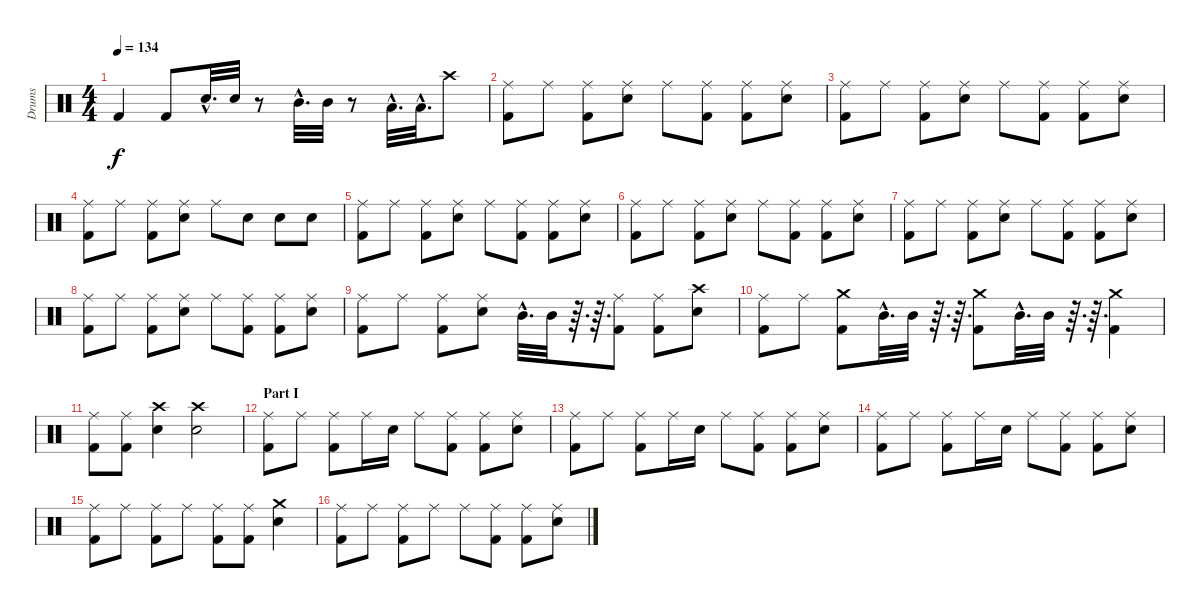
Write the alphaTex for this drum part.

\track ("Drums" "Drums") {instrument percussion}
\staff {score}
\articulation defaults
\ts (4 4)
\tempo 134
\clef neutral
\ks c "Kick (hit) 2".4{dy f} "Kick (hit) 2".8 "Snare (hit) 2"{hac}.32{d} "Snare (hit) 2".32
r.8 "Mid Tom (hit)"{hac}.32{d} "Mid Tom (hit)".32 r.8 "Low Tom (hit)"{hac}.32{d} "Low Tom (hit)"{hac}.32{d} "Crash high (hit)".8 |
("Ride (middle)" "Kick (hit) 2").8 "Ride (middle)".8 ("Ride (middle)" "Kick (hit) 2").8 ("Ride (middle)" "Snare (hit) 2").8 "Ride (middle)".8 ("Ride (middle)" "Kick (hit) 2").8 ("Ride (middle)" "Kick (hit) 2").8 ("Ride (middle)" "Snare (hit) 2").8 |
("Ride (middle)" "Kick (hit) 2").8 "Ride (middle)".8 ("Ride (middle)" "Kick (hit) 2").8 ("Ride (middle)" "Snare (hit) 2").8 "Ride (middle)".8 ("Ride (middle)" "Kick (hit) 2").8 ("Ride (middle)" "Kick (hit) 2").8 ("Ride (middle)" "Snare (hit) 2").8 |
("Ride (middle)" "Kick (hit) 2").8 "Ride (middle)".8 ("Ride (middle)" "Kick (hit) 2").8 ("Ride (middle)" "Snare (hit) 2").8 "Ride (middle)".8 "Snare (hit) 2".8 "Snare (hit) 2".8 "Snare (hit) 2".8 |
("Ride (middle)" "Kick (hit) 2").8 "Ride (middle)".8 ("Ride (middle)" "Kick (hit) 2").8 ("Ride (middle)" "Snare (hit) 2").8 "Ride (middle)".8 ("Ride (middle)" "Kick (hit) 2").8 ("Ride (middle)" "Kick (hit) 2").8 ("Ride (middle)" "Snare (hit) 2").8 |
("Ride (middle)" "Kick (hit) 2").8 "Ride (middle)".8 ("Ride (middle)" "Kick (hit) 2").8 ("Ride (middle)" "Snare (hit) 2").8 "Ride (middle)".8 ("Ride (middle)" "Kick (hit) 2").8 ("Ride (middle)" "Kick (hit) 2").8 ("Ride (middle)" "Snare (hit) 2").8 |
("Ride (middle)" "Kick (hit) 2").8 "Ride (middle)".8 ("Ride (middle)" "Kick (hit) 2").8 ("Ride (middle)" "Snare (hit) 2").8 "Ride (middle)".8 ("Ride (middle)" "Kick (hit) 2").8 ("Ride (middle)" "Kick (hit) 2").8 ("Ride (middle)" "Snare (hit) 2").8 |
("Ride (middle)" "Kick (hit) 2").8 "Ride (middle)".8 ("Ride (middle)" "Kick (hit) 2").8 ("Ride (middle)" "Snare (hit) 2").8 "Ride (middle)".8 ("Ride (middle)" "Kick (hit) 2").8 ("Ride (middle)" "Kick (hit) 2").8 ("Ride (middle)" "Snare (hit) 2").8 |
("Ride (middle)" "Kick (hit) 2").8 "Ride (middle)".8 ("Ride (middle)" "Kick (hit) 2").8 ("Ride (middle)" "Snare (hit) 2").8 "Mid Tom (hit)"{hac}.32{d} "Mid Tom (hit)".32 r.64{d} r.64{d} ("Ride (middle)" "Kick (hit) 2").8 ("Ride (middle)" "Kick (hit) 2").8 ("Crash high (hit)" "Snare (hit) 2").8 |
("Ride (middle)" "Kick (hit) 2").8 "Ride (middle)".8 ("Crash medium (hit)" "Kick (hit) 2").8 "Mid Tom (hit)"{hac}.32{d} "Mid Tom (hit)".32 r.64{d} r.64{d} ("Crash medium (hit)" "Kick (hit) 2").8 "Mid Tom (hit)"{hac}.32{d} "Mid Tom (hit)".32 r.64{d} r.64{d} ("Crash medium (hit)" "Kick (hit) 2").4 |
("Ride (middle)" "Kick (hit) 2").8 ("Ride (middle)" "Kick (hit) 2").8 ("Crash high (hit)" "Snare (hit) 2").4 ("Crash high (hit)" "Snare (hit) 2").2 |
\section ("" "Part I")
("Ride (middle)" "Kick (hit) 2").8 "Ride (middle)".8 ("Ride (middle)" "Kick (hit) 2").8 "Ride (middle)".16 "Snare (hit) 2".16 "Ride (middle)".8 ("Ride (middle)" "Kick (hit) 2").8 ("Ride (middle)" "Kick (hit) 2").8 ("Ride (middle)" "Snare (hit) 2").8 |
("Ride (middle)" "Kick (hit) 2").8 "Ride (middle)".8 ("Ride (middle)" "Kick (hit) 2").8 "Ride (middle)".16 "Snare (hit) 2".16 "Ride (middle)".8 ("Ride (middle)" "Kick (hit) 2").8 ("Ride (middle)" "Kick (hit) 2").8 ("Ride (middle)" "Snare (hit) 2").8 |
("Ride (middle)" "Kick (hit) 2").8 "Ride (middle)".8 ("Ride (middle)" "Kick (hit) 2").8 "Ride (middle)".16 "Snare (hit) 2".16 "Ride (middle)".8 ("Ride (middle)" "Kick (hit) 2").8 ("Ride (middle)" "Kick (hit) 2").8 ("Ride (middle)" "Snare (hit) 2").8 |
("Ride (middle)" "Kick (hit) 2").8 "Ride (middle)".8 ("Ride (middle)" "Kick (hit) 2").8 "Ride (middle)".8 ("Ride (middle)" "Kick (hit) 2").8 ("Ride (middle)" "Kick (hit) 2").8 ("Crash medium (hit)" "Snare (hit) 2").4 |
("Ride (middle)" "Kick (hit) 2").8 "Ride (middle)".8 ("Ride (middle)" "Kick (hit) 2").8 "Ride (middle)".8 "Ride (middle)".8 ("Ride (middle)" "Kick (hit) 2").8 ("Ride (middle)" "Kick (hit) 2").8 ("Ride (middle)" "Snare (hit) 2").8
